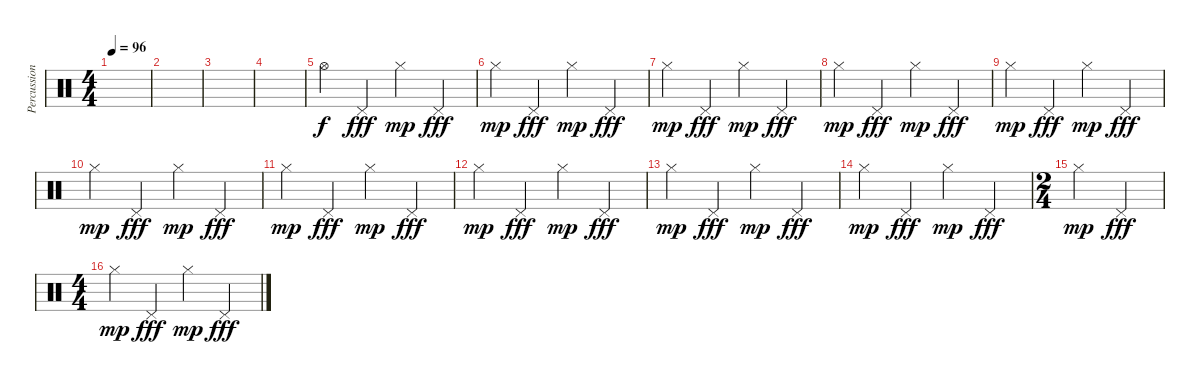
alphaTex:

\track ("Percussions" "Percussion") {instrument percussion}
\staff {score}
\articulation defaults
\ts (4 4)
\tempo 96
\clef neutral
\ks c
|
|
|
|
"Hi-Hat (open)".4 "Pedal Hi-Hat (hit)".4{dy fff} "Hi-Hat (closed)".4{dy mp} "Pedal Hi-Hat (hit)".4{dy fff} |
"Hi-Hat (closed)".4{dy mp} "Pedal Hi-Hat (hit)".4{dy fff} "Hi-Hat (closed)".4{dy mp} "Pedal Hi-Hat (hit)".4{dy fff} |
"Hi-Hat (closed)".4{dy mp} "Pedal Hi-Hat (hit)".4{dy fff} "Hi-Hat (closed)".4{dy mp} "Pedal Hi-Hat (hit)".4{dy fff} |
"Hi-Hat (closed)".4{dy mp} "Pedal Hi-Hat (hit)".4{dy fff} "Hi-Hat (closed)".4{dy mp} "Pedal Hi-Hat (hit)".4{dy fff} |
"Hi-Hat (closed)".4{dy mp} "Pedal Hi-Hat (hit)".4{dy fff} "Hi-Hat (closed)".4{dy mp} "Pedal Hi-Hat (hit)".4{dy fff} |
"Hi-Hat (closed)".4{dy mp} "Pedal Hi-Hat (hit)".4{dy fff} "Hi-Hat (closed)".4{dy mp} "Pedal Hi-Hat (hit)".4{dy fff} |
"Hi-Hat (closed)".4{dy mp} "Pedal Hi-Hat (hit)".4{dy fff} "Hi-Hat (closed)".4{dy mp} "Pedal Hi-Hat (hit)".4{dy fff} |
"Hi-Hat (closed)".4{dy mp} "Pedal Hi-Hat (hit)".4{dy fff} "Hi-Hat (closed)".4{dy mp} "Pedal Hi-Hat (hit)".4{dy fff} |
"Hi-Hat (closed)".4{dy mp} "Pedal Hi-Hat (hit)".4{dy fff} "Hi-Hat (closed)".4{dy mp} "Pedal Hi-Hat (hit)".4{dy fff} |
"Hi-Hat (closed)".4{dy mp} "Pedal Hi-Hat (hit)".4{dy fff} "Hi-Hat (closed)".4{dy mp} "Pedal Hi-Hat (hit)".4{dy fff} |
\ts (2 4)
"Hi-Hat (closed)".4{dy mp} "Pedal Hi-Hat (hit)".4{dy fff} |
\ts (4 4)
"Hi-Hat (closed)".4{dy mp} "Pedal Hi-Hat (hit)".4{dy fff} "Hi-Hat (closed)".4{dy mp} "Pedal Hi-Hat (hit)".4{dy fff}
